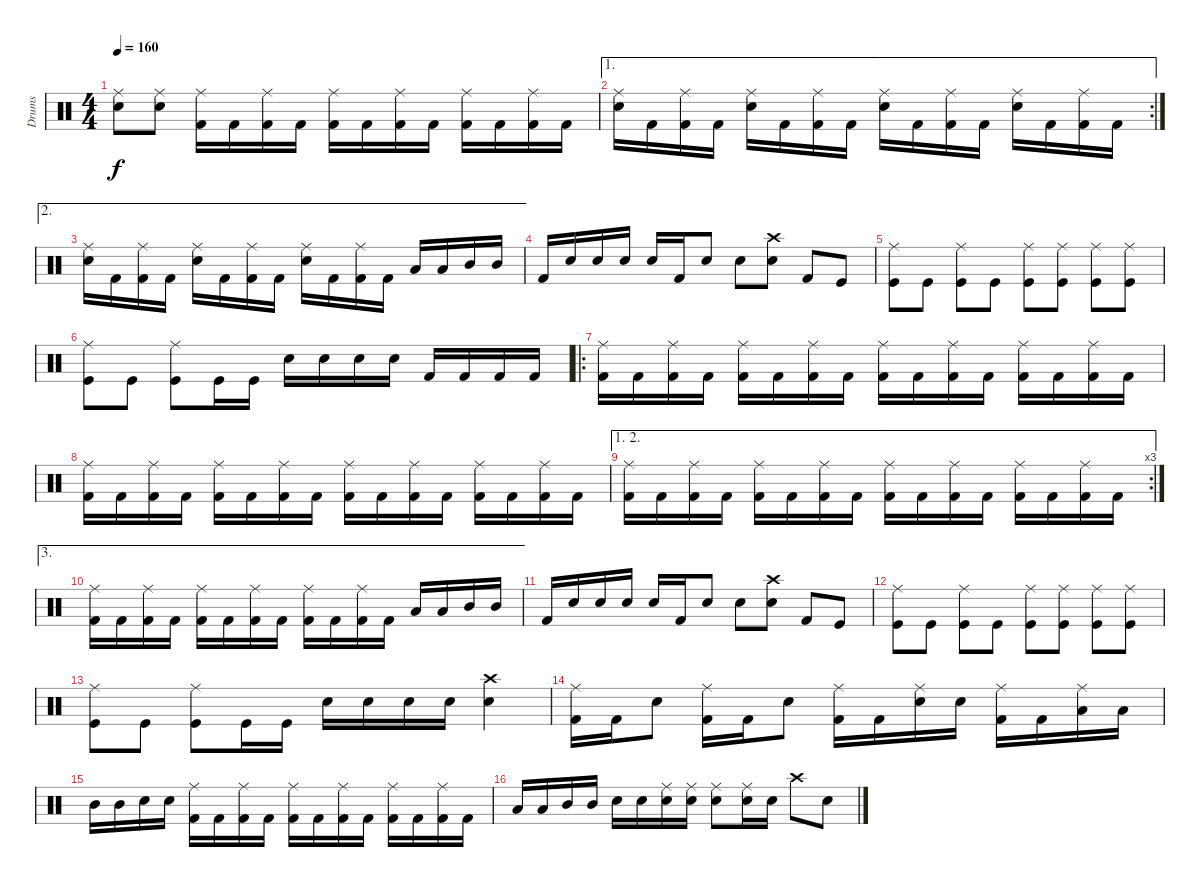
\track ("Drums" "Drums") {instrument percussion}
\staff {score}
\articulation defaults
\ts (4 4)
\tempo 160
\clef neutral
\ks c
("Ride (middle)" "Electric Snare (hit)").8{dy f} ("Ride (middle)" "Electric Snare (hit)").8 ("Ride (middle)" "Kick (hit) 2").16 "Kick (hit) 2".16 ("Ride (middle)" "Kick (hit) 2").16 "Kick (hit) 2".16 ("Ride (middle)" "Kick (hit) 2").16 "Kick (hit) 2".16 ("Ride (middle)" "Kick (hit) 2").16 "Kick (hit) 2".16 ("Ride (middle)" "Kick (hit) 2").16 "Kick (hit) 2".16 ("Ride (middle)" "Kick (hit) 2").16 "Kick (hit) 2".16 |
\ae 1
\rc 2
("Ride (middle)" "Electric Snare (hit)").16 "Kick (hit) 2".16 ("Ride (middle)" "Kick (hit) 2").16 "Kick (hit) 2".16 ("Ride (middle)" "Electric Snare (hit)").16 "Kick (hit) 2".16 ("Ride (middle)" "Kick (hit) 2").16 "Kick (hit) 2".16 ("Ride (middle)" "Electric Snare (hit)").16 "Kick (hit) 2".16 ("Ride (middle)" "Kick (hit) 2").16 "Kick (hit) 2".16 ("Ride (middle)" "Electric Snare (hit)").16 "Kick (hit) 2".16 ("Ride (middle)" "Kick (hit) 2").16 "Kick (hit) 2".16 |
\ae 2
("Ride (middle)" "Electric Snare (hit)").16 "Kick (hit) 2".16 ("Ride (middle)" "Kick (hit) 2").16 "Kick (hit) 2".16 ("Ride (middle)" "Electric Snare (hit)").16 "Kick (hit) 2".16 ("Ride (middle)" "Kick (hit) 2").16 "Kick (hit) 2".16 ("Ride (middle)" "Electric Snare (hit)").16 "Kick (hit) 2".16 ("Ride (middle)" "Kick (hit) 2").16 "Kick (hit) 2".16 "Low Tom (hit)".16 "Low Tom (hit)".16 "Mid Tom (hit)".16 "Mid Tom (hit)".16 |
"Kick (hit) 2".16 "Electric Snare (hit)".16 "Electric Snare (hit)".16 "Electric Snare (hit)".16 "Electric Snare (hit)".16 "Kick (hit) 2".16 "Electric Snare (hit)".8 "Electric Snare (hit)".8 ("Electric Snare (hit)" "Crash high (hit)").8 "Kick (hit) 2".8 "Kick (hit)".8 |
("Ride (middle)" "Kick (hit)").8 "Kick (hit)".8 ("Ride (middle)" "Kick (hit)").8 "Kick (hit)".8 ("Ride (middle)" "Kick (hit)").8 ("Ride (middle)" "Kick (hit)").8 ("Ride (middle)" "Kick (hit)").8 ("Ride (middle)" "Kick (hit)").8 |
("Ride (middle)" "Kick (hit)").8 "Kick (hit)".8 ("Ride (middle)" "Kick (hit)").8 "Kick (hit)".16 "Kick (hit)".16 "Electric Snare (hit)".16 "Electric Snare (hit)".16 "Electric Snare (hit)".16 "Electric Snare (hit)".16 "Kick (hit) 2".16 "Kick (hit) 2".16 "Kick (hit) 2".16 "Kick (hit) 2".16 |
\ro
("Ride (middle)" "Kick (hit) 2").16 "Kick (hit) 2".16 ("Ride (middle)" "Kick (hit) 2").16 "Kick (hit) 2".16 ("Ride (middle)" "Kick (hit) 2").16 "Kick (hit) 2".16 ("Ride (middle)" "Kick (hit) 2").16 "Kick (hit) 2".16 ("Ride (middle)" "Kick (hit) 2").16 "Kick (hit) 2".16 ("Ride (middle)" "Kick (hit) 2").16 "Kick (hit) 2".16 ("Ride (middle)" "Kick (hit) 2").16 "Kick (hit) 2".16 ("Ride (middle)" "Kick (hit) 2").16 "Kick (hit) 2".16 |
("Ride (middle)" "Kick (hit) 2").16 "Kick (hit) 2".16 ("Ride (middle)" "Kick (hit) 2").16 "Kick (hit) 2".16 ("Ride (middle)" "Kick (hit) 2").16 "Kick (hit) 2".16 ("Ride (middle)" "Kick (hit) 2").16 "Kick (hit) 2".16 ("Ride (middle)" "Kick (hit) 2").16 "Kick (hit) 2".16 ("Ride (middle)" "Kick (hit) 2").16 "Kick (hit) 2".16 ("Ride (middle)" "Kick (hit) 2").16 "Kick (hit) 2".16 ("Ride (middle)" "Kick (hit) 2").16 "Kick (hit) 2".16 |
\ae (1 2)
\rc 3
("Ride (middle)" "Kick (hit) 2").16 "Kick (hit) 2".16 ("Ride (middle)" "Kick (hit) 2").16 "Kick (hit) 2".16 ("Ride (middle)" "Kick (hit) 2").16 "Kick (hit) 2".16 ("Ride (middle)" "Kick (hit) 2").16 "Kick (hit) 2".16 ("Ride (middle)" "Kick (hit) 2").16 "Kick (hit) 2".16 ("Ride (middle)" "Kick (hit) 2").16 "Kick (hit) 2".16 ("Ride (middle)" "Kick (hit) 2").16 "Kick (hit) 2".16 ("Ride (middle)" "Kick (hit) 2").16 "Kick (hit) 2".16 |
\ae 3
("Ride (middle)" "Kick (hit) 2").16 "Kick (hit) 2".16 ("Ride (middle)" "Kick (hit) 2").16 "Kick (hit) 2".16 ("Ride (middle)" "Kick (hit) 2").16 "Kick (hit) 2".16 ("Ride (middle)" "Kick (hit) 2").16 "Kick (hit) 2".16 ("Ride (middle)" "Kick (hit) 2").16 "Kick (hit) 2".16 ("Ride (middle)" "Kick (hit) 2").16 "Kick (hit) 2".16 "Low Tom (hit)".16 "Low Tom (hit)".16 "Mid Tom (hit)".16 "Mid Tom (hit)".16 |
"Kick (hit) 2".16 "Electric Snare (hit)".16 "Electric Snare (hit)".16 "Electric Snare (hit)".16 "Electric Snare (hit)".16 "Kick (hit) 2".16 "Electric Snare (hit)".8 "Electric Snare (hit)".8 ("Electric Snare (hit)" "Crash high (hit)").8 "Kick (hit) 2".8 "Kick (hit)".8 |
("Ride (middle)" "Kick (hit)").8 "Kick (hit)".8 ("Ride (middle)" "Kick (hit)").8 "Kick (hit)".8 ("Ride (middle)" "Kick (hit)").8 ("Ride (middle)" "Kick (hit)").8 ("Ride (middle)" "Kick (hit)").8 ("Ride (middle)" "Kick (hit)").8 |
("Ride (middle)" "Kick (hit)").8 "Kick (hit)".8 ("Ride (middle)" "Kick (hit)").8 "Kick (hit)".16 "Kick (hit)".16 "Electric Snare (hit)".16 "Electric Snare (hit)".16 "Electric Snare (hit)".16 "Electric Snare (hit)".16 ("Electric Snare (hit)" "Crash high (hit)").4 |
("Ride (middle)" "Kick (hit) 2").16 "Kick (hit) 2".16 "Electric Snare (hit)".8 ("Ride (middle)" "Kick (hit) 2").16 "Kick (hit) 2".16 "Electric Snare (hit)".8 ("Ride (middle)" "Kick (hit) 2").16 "Kick (hit) 2".16 ("Ride (middle)" "Electric Snare (hit)").16 "Electric Snare (hit)".16 ("Ride (middle)" "Kick (hit) 2").16 "Kick (hit) 2".16 ("Ride (middle)" "Low Tom (hit)").16 "Low Tom (hit)".16 |
"Mid Tom (hit)".16 "Mid Tom (hit)".16 "Electric Snare (hit)".16 "Electric Snare (hit)".16 ("Ride (middle)" "Kick (hit) 2").16 "Kick (hit) 2".16 ("Ride (middle)" "Kick (hit) 2").16 "Kick (hit) 2".16 ("Ride (middle)" "Kick (hit) 2").16 "Kick (hit) 2".16 ("Ride (middle)" "Kick (hit) 2").16 "Kick (hit) 2".16 ("Ride (middle)" "Kick (hit) 2").16 "Kick (hit) 2".16 ("Ride (middle)" "Kick (hit) 2").16 "Kick (hit) 2".16 |
"Low Tom (hit)".16 "Low Tom (hit)".16 "Mid Tom (hit)".16 "Mid Tom (hit)".16 "Electric Snare (hit)".16 "Electric Snare (hit)".16 ("Ride (middle)" "Electric Snare (hit)").16 ("Ride (middle)" "Electric Snare (hit)").16 ("Ride (middle)" "Electric Snare (hit)").8 ("Ride (middle)" "Electric Snare (hit)").16 "Electric Snare (hit)".16 "Crash high (hit)".8 "Electric Snare (hit)".8
